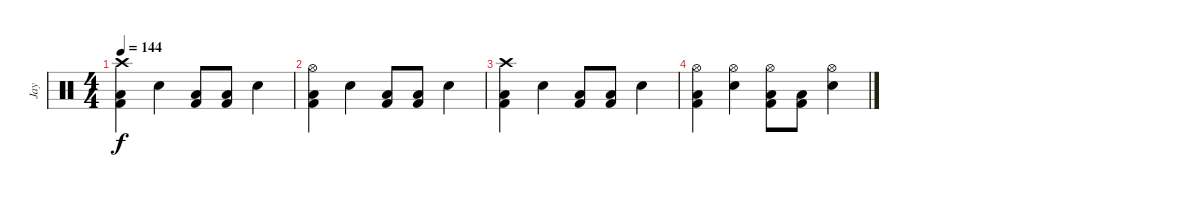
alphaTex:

\track ("Jay" "Jay") {instrument percussion}
\staff {score}
\articulation defaults
\ts (4 4)
\tempo 144
\clef neutral
\ks c
("Crash high (hit)" "Low Tom (hit)" "Kick (hit) 2").4{dy f} "Electric Snare (hit)".4 ("Low Tom (hit)" "Kick (hit) 2").8 ("Low Tom (hit)" "Kick (hit) 2").8 "Electric Snare (hit)".4 |
("Hi-Hat (open)" "Low Tom (hit)" "Kick (hit) 2").4 "Electric Snare (hit)".4 ("Low Tom (hit)" "Kick (hit) 2").8 ("Low Tom (hit)" "Kick (hit) 2").8 "Electric Snare (hit)".4 |
("Crash high (hit)" "Low Tom (hit)" "Kick (hit) 2").4 "Electric Snare (hit)".4 ("Low Tom (hit)" "Kick (hit) 2").8 ("Low Tom (hit)" "Kick (hit) 2").8 "Electric Snare (hit)".4 |
("Hi-Hat (open)" "Low Tom (hit)" "Kick (hit) 2").4 ("Hi-Hat (open)" "Electric Snare (hit)").4 ("Hi-Hat (open)" "Low Tom (hit)" "Kick (hit) 2").8 ("Low Tom (hit)" "Kick (hit) 2").8 ("Hi-Hat (open)" "Electric Snare (hit)").4
